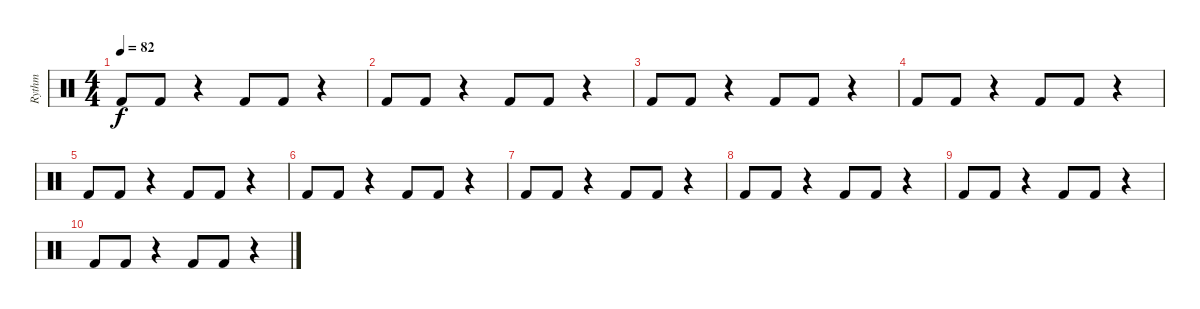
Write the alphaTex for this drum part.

\track ("Rythm" "Rythm") {instrument percussion}
\staff {score}
\articulation defaults
\ts (4 4)
\tempo 82
\clef neutral
\ks c "Kick (hit) 2".8{dy f} "Kick (hit) 2".8
r.4 "Kick (hit) 2".8 "Kick (hit) 2".8 r.4 |
"Kick (hit) 2".8 "Kick (hit) 2".8 r.4 "Kick (hit) 2".8 "Kick (hit) 2".8 r.4 |
"Kick (hit) 2".8 "Kick (hit) 2".8 r.4 "Kick (hit) 2".8 "Kick (hit) 2".8 r.4 |
"Kick (hit) 2".8 "Kick (hit) 2".8 r.4 "Kick (hit) 2".8 "Kick (hit) 2".8 r.4 |
"Kick (hit) 2".8 "Kick (hit) 2".8 r.4 "Kick (hit) 2".8 "Kick (hit) 2".8 r.4 |
"Kick (hit) 2".8 "Kick (hit) 2".8 r.4 "Kick (hit) 2".8 "Kick (hit) 2".8 r.4 |
"Kick (hit) 2".8 "Kick (hit) 2".8 r.4 "Kick (hit) 2".8 "Kick (hit) 2".8 r.4 |
"Kick (hit) 2".8 "Kick (hit) 2".8 r.4 "Kick (hit) 2".8 "Kick (hit) 2".8 r.4 |
"Kick (hit) 2".8 "Kick (hit) 2".8 r.4 "Kick (hit) 2".8 "Kick (hit) 2".8 r.4 |
"Kick (hit) 2".8 "Kick (hit) 2".8 r.4 "Kick (hit) 2".8 "Kick (hit) 2".8 r.4
